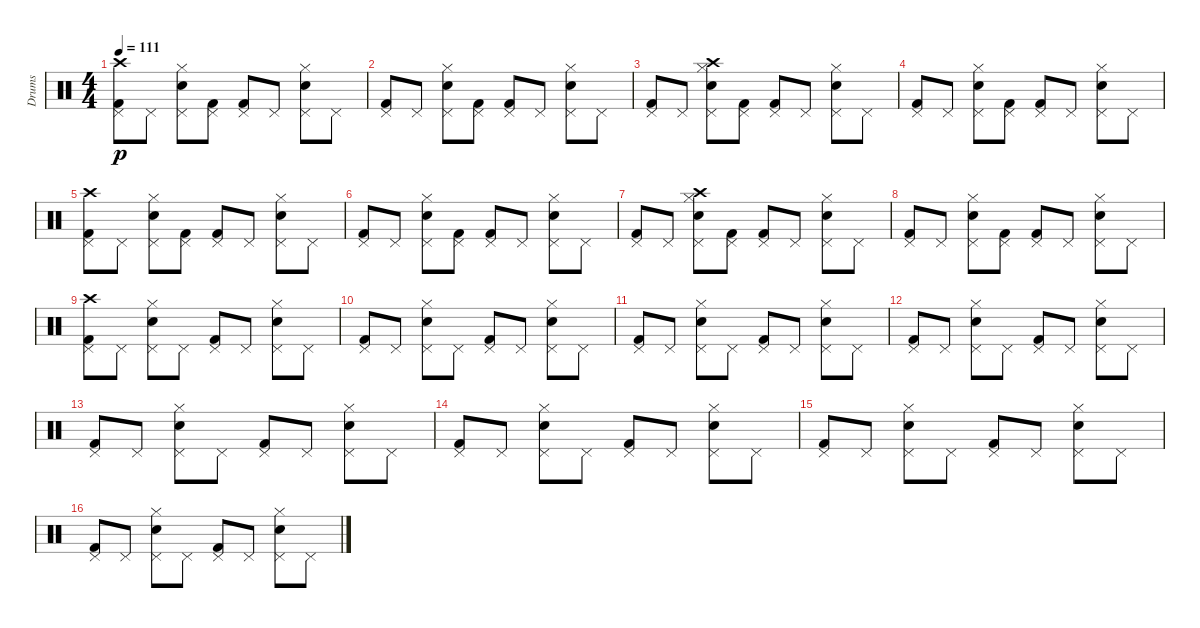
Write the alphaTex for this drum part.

\track ("Drums" "Drums") {instrument percussion}
\staff {score}
\articulation defaults
\ts (4 4)
\tempo 111
\clef neutral
\ks c
("Pedal Hi-Hat (hit)" "Kick (hit) 2" "Crash high (hit)").8{dy p} "Pedal Hi-Hat (hit)".8 ("Pedal Hi-Hat (hit)" "Hand Clap (hit)" "Hi-Hat (closed)").8 ("Pedal Hi-Hat (hit)" "Kick (hit) 2").8 ("Pedal Hi-Hat (hit)" "Kick (hit) 2").8 "Pedal Hi-Hat (hit)".8 ("Pedal Hi-Hat (hit)" "Hand Clap (hit)" "Hi-Hat (closed)").8 "Pedal Hi-Hat (hit)".8 |
("Pedal Hi-Hat (hit)" "Kick (hit) 2").8 "Pedal Hi-Hat (hit)".8 ("Pedal Hi-Hat (hit)" "Hand Clap (hit)" "Hi-Hat (closed)").8 ("Pedal Hi-Hat (hit)" "Kick (hit) 2").8 ("Pedal Hi-Hat (hit)" "Kick (hit) 2").8 "Pedal Hi-Hat (hit)".8 ("Pedal Hi-Hat (hit)" "Hand Clap (hit)" "Hi-Hat (closed)").8 "Pedal Hi-Hat (hit)".8 |
("Pedal Hi-Hat (hit)" "Kick (hit) 2").8 "Pedal Hi-Hat (hit)".8 ("Pedal Hi-Hat (hit)" "Hand Clap (hit)" "Hi-Hat (closed)" "Crash high (hit)").8 ("Pedal Hi-Hat (hit)" "Kick (hit) 2").8 ("Pedal Hi-Hat (hit)" "Kick (hit) 2").8 "Pedal Hi-Hat (hit)".8 ("Pedal Hi-Hat (hit)" "Hand Clap (hit)" "Hi-Hat (closed)").8 "Pedal Hi-Hat (hit)".8 |
("Pedal Hi-Hat (hit)" "Kick (hit) 2").8 "Pedal Hi-Hat (hit)".8 ("Pedal Hi-Hat (hit)" "Hand Clap (hit)" "Hi-Hat (closed)").8 ("Pedal Hi-Hat (hit)" "Kick (hit) 2").8 ("Pedal Hi-Hat (hit)" "Kick (hit) 2").8 "Pedal Hi-Hat (hit)".8 ("Pedal Hi-Hat (hit)" "Hand Clap (hit)" "Hi-Hat (closed)").8 "Pedal Hi-Hat (hit)".8 |
("Pedal Hi-Hat (hit)" "Kick (hit) 2" "Crash high (hit)").8 "Pedal Hi-Hat (hit)".8 ("Pedal Hi-Hat (hit)" "Hand Clap (hit)" "Hi-Hat (closed)").8 ("Pedal Hi-Hat (hit)" "Kick (hit) 2").8 ("Pedal Hi-Hat (hit)" "Kick (hit) 2").8 "Pedal Hi-Hat (hit)".8 ("Pedal Hi-Hat (hit)" "Hand Clap (hit)" "Hi-Hat (closed)").8 "Pedal Hi-Hat (hit)".8 |
("Pedal Hi-Hat (hit)" "Kick (hit) 2").8 "Pedal Hi-Hat (hit)".8 ("Pedal Hi-Hat (hit)" "Hand Clap (hit)" "Hi-Hat (closed)").8 ("Pedal Hi-Hat (hit)" "Kick (hit) 2").8 ("Pedal Hi-Hat (hit)" "Kick (hit) 2").8 "Pedal Hi-Hat (hit)".8 ("Pedal Hi-Hat (hit)" "Hand Clap (hit)" "Hi-Hat (closed)").8 "Pedal Hi-Hat (hit)".8 |
("Pedal Hi-Hat (hit)" "Kick (hit) 2").8 "Pedal Hi-Hat (hit)".8 ("Pedal Hi-Hat (hit)" "Hand Clap (hit)" "Hi-Hat (closed)" "Crash high (hit)").8 ("Pedal Hi-Hat (hit)" "Kick (hit) 2").8 ("Pedal Hi-Hat (hit)" "Kick (hit) 2").8 "Pedal Hi-Hat (hit)".8 ("Pedal Hi-Hat (hit)" "Hand Clap (hit)" "Hi-Hat (closed)").8 "Pedal Hi-Hat (hit)".8 |
("Pedal Hi-Hat (hit)" "Kick (hit) 2").8 "Pedal Hi-Hat (hit)".8 ("Pedal Hi-Hat (hit)" "Hand Clap (hit)" "Hi-Hat (closed)").8 ("Pedal Hi-Hat (hit)" "Kick (hit) 2").8 ("Pedal Hi-Hat (hit)" "Kick (hit) 2").8 "Pedal Hi-Hat (hit)".8 ("Pedal Hi-Hat (hit)" "Hand Clap (hit)" "Hi-Hat (closed)").8 "Pedal Hi-Hat (hit)".8 |
("Pedal Hi-Hat (hit)" "Kick (hit) 2" "Crash high (hit)").8 "Pedal Hi-Hat (hit)".8 ("Pedal Hi-Hat (hit)" "Hand Clap (hit)" "Hi-Hat (closed)").8 "Pedal Hi-Hat (hit)".8 ("Pedal Hi-Hat (hit)" "Kick (hit) 2").8 "Pedal Hi-Hat (hit)".8 ("Pedal Hi-Hat (hit)" "Hand Clap (hit)" "Hi-Hat (closed)").8 "Pedal Hi-Hat (hit)".8 |
("Pedal Hi-Hat (hit)" "Kick (hit) 2").8 "Pedal Hi-Hat (hit)".8 ("Pedal Hi-Hat (hit)" "Hand Clap (hit)" "Hi-Hat (closed)").8 "Pedal Hi-Hat (hit)".8 ("Pedal Hi-Hat (hit)" "Kick (hit) 2").8 "Pedal Hi-Hat (hit)".8 ("Pedal Hi-Hat (hit)" "Hand Clap (hit)" "Hi-Hat (closed)").8 "Pedal Hi-Hat (hit)".8 |
("Pedal Hi-Hat (hit)" "Kick (hit) 2").8 "Pedal Hi-Hat (hit)".8 ("Pedal Hi-Hat (hit)" "Hand Clap (hit)" "Hi-Hat (closed)").8 "Pedal Hi-Hat (hit)".8 ("Pedal Hi-Hat (hit)" "Kick (hit) 2").8 "Pedal Hi-Hat (hit)".8 ("Pedal Hi-Hat (hit)" "Hand Clap (hit)" "Hi-Hat (closed)").8 "Pedal Hi-Hat (hit)".8 |
("Pedal Hi-Hat (hit)" "Kick (hit) 2").8 "Pedal Hi-Hat (hit)".8 ("Pedal Hi-Hat (hit)" "Hand Clap (hit)" "Hi-Hat (closed)").8 "Pedal Hi-Hat (hit)".8 ("Pedal Hi-Hat (hit)" "Kick (hit) 2").8 "Pedal Hi-Hat (hit)".8 ("Pedal Hi-Hat (hit)" "Hand Clap (hit)" "Hi-Hat (closed)").8 "Pedal Hi-Hat (hit)".8 |
("Pedal Hi-Hat (hit)" "Kick (hit) 2").8 "Pedal Hi-Hat (hit)".8 ("Pedal Hi-Hat (hit)" "Hand Clap (hit)" "Hi-Hat (closed)").8 "Pedal Hi-Hat (hit)".8 ("Pedal Hi-Hat (hit)" "Kick (hit) 2").8 "Pedal Hi-Hat (hit)".8 ("Pedal Hi-Hat (hit)" "Hand Clap (hit)" "Hi-Hat (closed)").8 "Pedal Hi-Hat (hit)".8 |
("Pedal Hi-Hat (hit)" "Kick (hit) 2").8 "Pedal Hi-Hat (hit)".8 ("Pedal Hi-Hat (hit)" "Hand Clap (hit)" "Hi-Hat (closed)").8 "Pedal Hi-Hat (hit)".8 ("Pedal Hi-Hat (hit)" "Kick (hit) 2").8 "Pedal Hi-Hat (hit)".8 ("Pedal Hi-Hat (hit)" "Hand Clap (hit)" "Hi-Hat (closed)").8 "Pedal Hi-Hat (hit)".8 |
("Pedal Hi-Hat (hit)" "Kick (hit) 2").8 "Pedal Hi-Hat (hit)".8 ("Pedal Hi-Hat (hit)" "Hand Clap (hit)" "Hi-Hat (closed)").8 "Pedal Hi-Hat (hit)".8 ("Pedal Hi-Hat (hit)" "Kick (hit) 2").8 "Pedal Hi-Hat (hit)".8 ("Pedal Hi-Hat (hit)" "Hand Clap (hit)" "Hi-Hat (closed)").8 "Pedal Hi-Hat (hit)".8 |
("Pedal Hi-Hat (hit)" "Kick (hit) 2").8 "Pedal Hi-Hat (hit)".8 ("Pedal Hi-Hat (hit)" "Hand Clap (hit)" "Hi-Hat (closed)").8 "Pedal Hi-Hat (hit)".8 ("Pedal Hi-Hat (hit)" "Kick (hit) 2").8 "Pedal Hi-Hat (hit)".8 ("Pedal Hi-Hat (hit)" "Hand Clap (hit)" "Hi-Hat (closed)").8 "Pedal Hi-Hat (hit)".8
